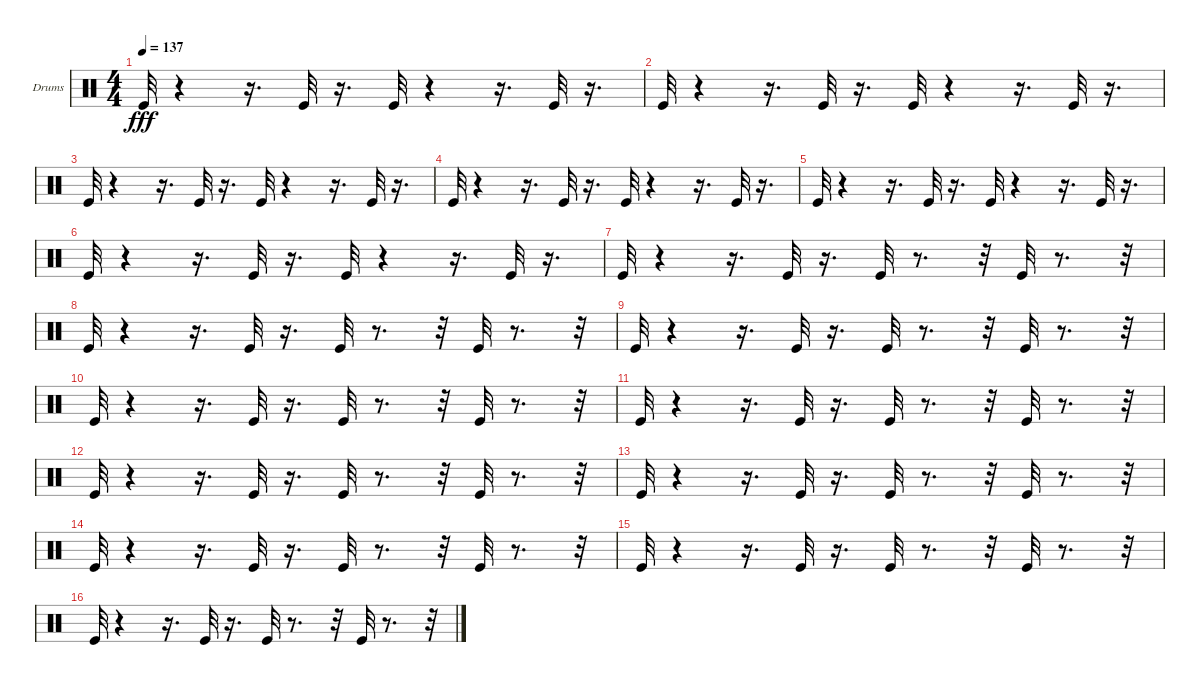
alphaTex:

\bracketExtendMode groupsimilarinstruments
\firstSystemTrackNameOrientation horizontal
\otherSystemsTrackNameOrientation horizontal
\track ("Drumkit" "Drums") {instrument percussion}
\staff {score}
\articulation defaults
\ts (4 4)
\tempo 137
\clef neutral
\ks c "Kick (hit)".32{dy fff}
r.4 r.16{d} "Kick (hit)".32 r.16{d} "Kick (hit)".32 r.4 r.16{d} "Kick (hit)".32 r.16{d} |
"Kick (hit)".32 r.4 r.16{d} "Kick (hit)".32 r.16{d} "Kick (hit)".32 r.4 r.16{d} "Kick (hit)".32 r.16{d} |
"Kick (hit)".32 r.4 r.16{d} "Kick (hit)".32 r.16{d} "Kick (hit)".32 r.4 r.16{d} "Kick (hit)".32 r.16{d} |
"Kick (hit)".32 r.4 r.16{d} "Kick (hit)".32 r.16{d} "Kick (hit)".32 r.4 r.16{d} "Kick (hit)".32 r.16{d} |
"Kick (hit)".32 r.4 r.16{d} "Kick (hit)".32 r.16{d} "Kick (hit)".32 r.4 r.16{d} "Kick (hit)".32 r.16{d} |
"Kick (hit)".32 r.4 r.16{d} "Kick (hit)".32 r.16{d} "Kick (hit)".32 r.4 r.16{d} "Kick (hit)".32 r.16{d} |
"Kick (hit)".32 r.4 r.16{d} "Kick (hit)".32 r.16{d} "Kick (hit)".32 r.8{d} r.32 "Kick (hit)".32 r.8{d} r.32 |
"Kick (hit)".32 r.4 r.16{d} "Kick (hit)".32 r.16{d} "Kick (hit)".32 r.8{d} r.32 "Kick (hit)".32 r.8{d} r.32 |
"Kick (hit)".32 r.4 r.16{d} "Kick (hit)".32 r.16{d} "Kick (hit)".32 r.8{d} r.32 "Kick (hit)".32 r.8{d} r.32 |
"Kick (hit)".32 r.4 r.16{d} "Kick (hit)".32 r.16{d} "Kick (hit)".32 r.8{d} r.32 "Kick (hit)".32 r.8{d} r.32 |
"Kick (hit)".32 r.4 r.16{d} "Kick (hit)".32 r.16{d} "Kick (hit)".32 r.8{d} r.32 "Kick (hit)".32 r.8{d} r.32 |
"Kick (hit)".32 r.4 r.16{d} "Kick (hit)".32 r.16{d} "Kick (hit)".32 r.8{d} r.32 "Kick (hit)".32 r.8{d} r.32 |
"Kick (hit)".32 r.4 r.16{d} "Kick (hit)".32 r.16{d} "Kick (hit)".32 r.8{d} r.32 "Kick (hit)".32 r.8{d} r.32 |
"Kick (hit)".32 r.4 r.16{d} "Kick (hit)".32 r.16{d} "Kick (hit)".32 r.8{d} r.32 "Kick (hit)".32 r.8{d} r.32 |
"Kick (hit)".32 r.4 r.16{d} "Kick (hit)".32 r.16{d} "Kick (hit)".32 r.8{d} r.32 "Kick (hit)".32 r.8{d} r.32 |
"Kick (hit)".32 r.4 r.16{d} "Kick (hit)".32 r.16{d} "Kick (hit)".32 r.8{d} r.32 "Kick (hit)".32 r.8{d} r.32
